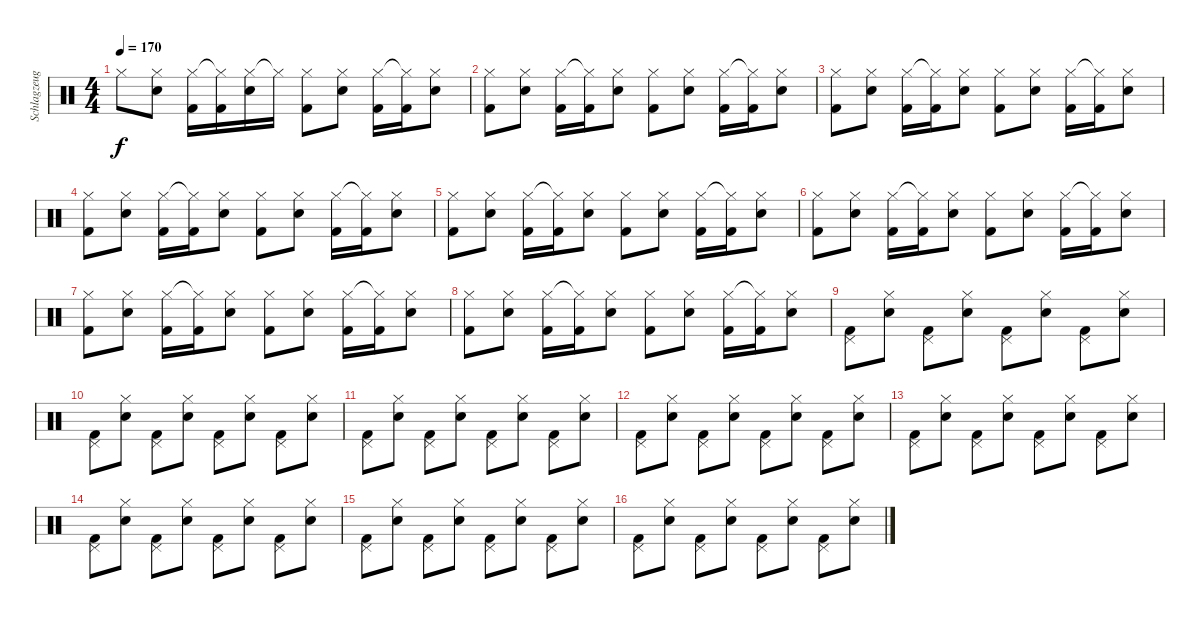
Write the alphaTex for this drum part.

\track ("Schlagzeug (Bela)" "Schlagzeug") {instrument percussion}
\staff {score}
\articulation defaults
\ts (4 4)
\tempo 170
\clef neutral
\ks c "Hi-Hat (closed)".8{dy f}
("Hi-Hat (closed)" "Snare (hit) 2").8 ("Hi-Hat (closed)" "Kick (hit) 2").16 ("Hi-Hat (closed)"{t} "Kick (hit) 2").16 ("Hi-Hat (closed)" "Snare (hit) 2").16 "Hi-Hat (closed)"{t}.16 ("Hi-Hat (closed)" "Kick (hit) 2").8 ("Hi-Hat (closed)" "Snare (hit) 2").8 ("Hi-Hat (closed)" "Kick (hit) 2").16 ("Hi-Hat (closed)"{t} "Kick (hit) 2").16 ("Hi-Hat (closed)" "Snare (hit) 2").8 |
("Hi-Hat (closed)" "Kick (hit) 2").8 ("Hi-Hat (closed)" "Snare (hit) 2").8 ("Hi-Hat (closed)" "Kick (hit) 2").16 ("Hi-Hat (closed)"{t} "Kick (hit) 2").16 ("Hi-Hat (closed)" "Snare (hit) 2").8 ("Hi-Hat (closed)" "Kick (hit) 2").8 ("Hi-Hat (closed)" "Snare (hit) 2").8 ("Hi-Hat (closed)" "Kick (hit) 2").16 ("Hi-Hat (closed)"{t} "Kick (hit) 2").16 ("Hi-Hat (closed)" "Snare (hit) 2").8 |
("Hi-Hat (closed)" "Kick (hit) 2").8 ("Hi-Hat (closed)" "Snare (hit) 2").8 ("Hi-Hat (closed)" "Kick (hit) 2").16 ("Hi-Hat (closed)"{t} "Kick (hit) 2").16 ("Hi-Hat (closed)" "Snare (hit) 2").8 ("Hi-Hat (closed)" "Kick (hit) 2").8 ("Hi-Hat (closed)" "Snare (hit) 2").8 ("Hi-Hat (closed)" "Kick (hit) 2").16 ("Hi-Hat (closed)"{t} "Kick (hit) 2").16 ("Hi-Hat (closed)" "Snare (hit) 2").8 |
("Hi-Hat (closed)" "Kick (hit) 2").8 ("Hi-Hat (closed)" "Snare (hit) 2").8 ("Hi-Hat (closed)" "Kick (hit) 2").16 ("Hi-Hat (closed)"{t} "Kick (hit) 2").16 ("Hi-Hat (closed)" "Snare (hit) 2").8 ("Hi-Hat (closed)" "Kick (hit) 2").8 ("Hi-Hat (closed)" "Snare (hit) 2").8 ("Hi-Hat (closed)" "Kick (hit) 2").16 ("Hi-Hat (closed)"{t} "Kick (hit) 2").16 ("Hi-Hat (closed)" "Snare (hit) 2").8 |
("Hi-Hat (closed)" "Kick (hit) 2").8 ("Hi-Hat (closed)" "Snare (hit) 2").8 ("Hi-Hat (closed)" "Kick (hit) 2").16 ("Hi-Hat (closed)"{t} "Kick (hit) 2").16 ("Hi-Hat (closed)" "Snare (hit) 2").8 ("Hi-Hat (closed)" "Kick (hit) 2").8 ("Hi-Hat (closed)" "Snare (hit) 2").8 ("Hi-Hat (closed)" "Kick (hit) 2").16 ("Hi-Hat (closed)"{t} "Kick (hit) 2").16 ("Hi-Hat (closed)" "Snare (hit) 2").8 |
("Hi-Hat (closed)" "Kick (hit) 2").8 ("Hi-Hat (closed)" "Snare (hit) 2").8 ("Hi-Hat (closed)" "Kick (hit) 2").16 ("Hi-Hat (closed)"{t} "Kick (hit) 2").16 ("Hi-Hat (closed)" "Snare (hit) 2").8 ("Hi-Hat (closed)" "Kick (hit) 2").8 ("Hi-Hat (closed)" "Snare (hit) 2").8 ("Hi-Hat (closed)" "Kick (hit) 2").16 ("Hi-Hat (closed)"{t} "Kick (hit) 2").16 ("Hi-Hat (closed)" "Snare (hit) 2").8 |
("Hi-Hat (closed)" "Kick (hit) 2").8 ("Hi-Hat (closed)" "Snare (hit) 2").8 ("Hi-Hat (closed)" "Kick (hit) 2").16 ("Hi-Hat (closed)"{t} "Kick (hit) 2").16 ("Hi-Hat (closed)" "Snare (hit) 2").8 ("Hi-Hat (closed)" "Kick (hit) 2").8 ("Hi-Hat (closed)" "Snare (hit) 2").8 ("Hi-Hat (closed)" "Kick (hit) 2").16 ("Hi-Hat (closed)"{t} "Kick (hit) 2").16 ("Hi-Hat (closed)" "Snare (hit) 2").8 |
("Hi-Hat (closed)" "Kick (hit) 2").8 ("Hi-Hat (closed)" "Snare (hit) 2").8 ("Hi-Hat (closed)" "Kick (hit) 2").16 ("Hi-Hat (closed)"{t} "Kick (hit) 2").16 ("Hi-Hat (closed)" "Snare (hit) 2").8 ("Hi-Hat (closed)" "Kick (hit) 2").8 ("Hi-Hat (closed)" "Snare (hit) 2").8 ("Hi-Hat (closed)" "Kick (hit) 2").16 ("Hi-Hat (closed)"{t} "Kick (hit) 2").16 ("Hi-Hat (closed)" "Snare (hit) 2").8 |
("Pedal Hi-Hat (hit)" "Kick (hit) 2").8 ("Hi-Hat (closed)" "Snare (hit) 2").8 ("Pedal Hi-Hat (hit)" "Kick (hit) 2").8 ("Hi-Hat (closed)" "Snare (hit) 2").8 ("Pedal Hi-Hat (hit)" "Kick (hit) 2").8 ("Hi-Hat (closed)" "Snare (hit) 2").8 ("Pedal Hi-Hat (hit)" "Kick (hit) 2").8 ("Hi-Hat (closed)" "Snare (hit) 2").8 |
("Pedal Hi-Hat (hit)" "Kick (hit) 2").8 ("Hi-Hat (closed)" "Snare (hit) 2").8 ("Pedal Hi-Hat (hit)" "Kick (hit) 2").8 ("Hi-Hat (closed)" "Snare (hit) 2").8 ("Pedal Hi-Hat (hit)" "Kick (hit) 2").8 ("Hi-Hat (closed)" "Snare (hit) 2").8 ("Pedal Hi-Hat (hit)" "Kick (hit) 2").8 ("Hi-Hat (closed)" "Snare (hit) 2").8 |
("Pedal Hi-Hat (hit)" "Kick (hit) 2").8 ("Hi-Hat (closed)" "Snare (hit) 2").8 ("Pedal Hi-Hat (hit)" "Kick (hit) 2").8 ("Hi-Hat (closed)" "Snare (hit) 2").8 ("Pedal Hi-Hat (hit)" "Kick (hit) 2").8 ("Hi-Hat (closed)" "Snare (hit) 2").8 ("Pedal Hi-Hat (hit)" "Kick (hit) 2").8 ("Hi-Hat (closed)" "Snare (hit) 2").8 |
("Pedal Hi-Hat (hit)" "Kick (hit) 2").8 ("Hi-Hat (closed)" "Snare (hit) 2").8 ("Pedal Hi-Hat (hit)" "Kick (hit) 2").8 ("Hi-Hat (closed)" "Snare (hit) 2").8 ("Pedal Hi-Hat (hit)" "Kick (hit) 2").8 ("Hi-Hat (closed)" "Snare (hit) 2").8 ("Pedal Hi-Hat (hit)" "Kick (hit) 2").8 ("Hi-Hat (closed)" "Snare (hit) 2").8 |
("Pedal Hi-Hat (hit)" "Kick (hit) 2").8 ("Hi-Hat (closed)" "Snare (hit) 2").8 ("Pedal Hi-Hat (hit)" "Kick (hit) 2").8 ("Hi-Hat (closed)" "Snare (hit) 2").8 ("Pedal Hi-Hat (hit)" "Kick (hit) 2").8 ("Hi-Hat (closed)" "Snare (hit) 2").8 ("Pedal Hi-Hat (hit)" "Kick (hit) 2").8 ("Hi-Hat (closed)" "Snare (hit) 2").8 |
("Pedal Hi-Hat (hit)" "Kick (hit) 2").8 ("Hi-Hat (closed)" "Snare (hit) 2").8 ("Pedal Hi-Hat (hit)" "Kick (hit) 2").8 ("Hi-Hat (closed)" "Snare (hit) 2").8 ("Pedal Hi-Hat (hit)" "Kick (hit) 2").8 ("Hi-Hat (closed)" "Snare (hit) 2").8 ("Pedal Hi-Hat (hit)" "Kick (hit) 2").8 ("Hi-Hat (closed)" "Snare (hit) 2").8 |
("Pedal Hi-Hat (hit)" "Kick (hit) 2").8 ("Hi-Hat (closed)" "Snare (hit) 2").8 ("Pedal Hi-Hat (hit)" "Kick (hit) 2").8 ("Hi-Hat (closed)" "Snare (hit) 2").8 ("Pedal Hi-Hat (hit)" "Kick (hit) 2").8 ("Hi-Hat (closed)" "Snare (hit) 2").8 ("Pedal Hi-Hat (hit)" "Kick (hit) 2").8 ("Hi-Hat (closed)" "Snare (hit) 2").8 |
("Pedal Hi-Hat (hit)" "Kick (hit) 2").8 ("Hi-Hat (closed)" "Snare (hit) 2").8 ("Pedal Hi-Hat (hit)" "Kick (hit) 2").8 ("Hi-Hat (closed)" "Snare (hit) 2").8 ("Pedal Hi-Hat (hit)" "Kick (hit) 2").8 ("Hi-Hat (closed)" "Snare (hit) 2").8 ("Pedal Hi-Hat (hit)" "Kick (hit) 2").8 ("Hi-Hat (closed)" "Snare (hit) 2").8
